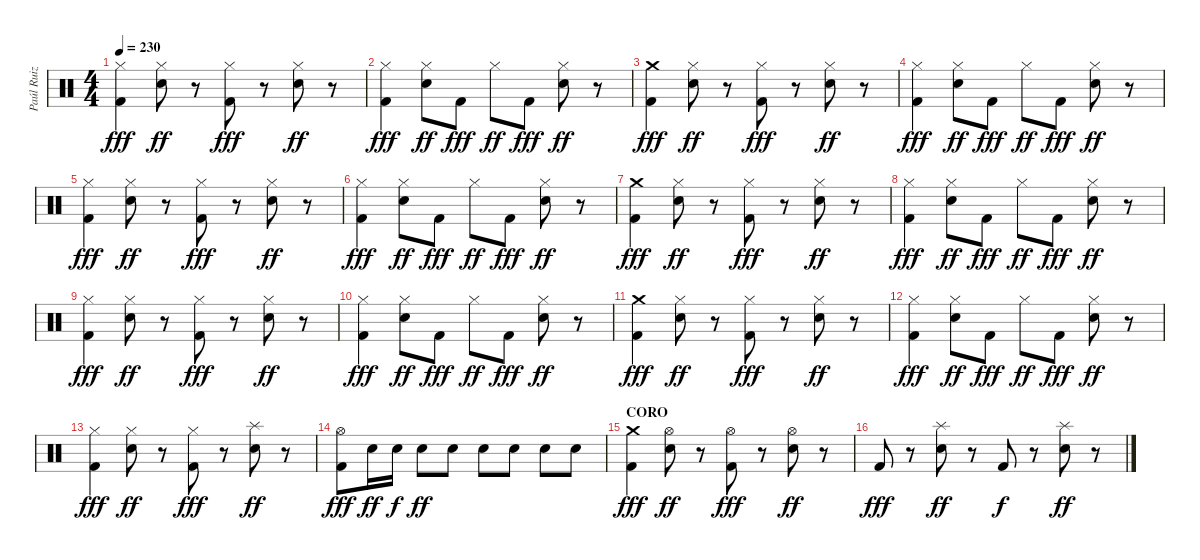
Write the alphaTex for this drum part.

\track ("Paúl Ruiz" "Paúl Ruiz") {instrument percussion}
\staff {score}
\articulation defaults
\ts (4 4)
\tempo 230
\clef neutral
\ks c
("Hi-Hat (closed)" "Kick (hit) 2").4{dy fff} ("Hi-Hat (closed)" "Snare (hit) 2").8{dy ff} r.8 ("Hi-Hat (closed)" "Kick (hit) 2").8{dy fff} r.8 ("Hi-Hat (closed)" "Snare (hit) 2").8{dy ff} r.8 |
("Hi-Hat (closed)" "Kick (hit) 2").4{dy fff} ("Hi-Hat (closed)" "Snare (hit) 2").8{dy ff} "Kick (hit) 2".8{dy fff} "Hi-Hat (closed)".8{dy ff} "Kick (hit) 2".8{dy fff} ("Hi-Hat (closed)" "Snare (hit) 2").8{dy ff} r.8 |
("Crash medium (hit)" "Kick (hit) 2").4{dy fff} ("Hi-Hat (closed)" "Snare (hit) 2").8{dy ff} r.8 ("Hi-Hat (closed)" "Kick (hit) 2").8{dy fff} r.8 ("Hi-Hat (closed)" "Snare (hit) 2").8{dy ff} r.8 |
("Hi-Hat (closed)" "Kick (hit) 2").4{dy fff} ("Hi-Hat (closed)" "Snare (hit) 2").8{dy ff} "Kick (hit) 2".8{dy fff} "Hi-Hat (closed)".8{dy ff} "Kick (hit) 2".8{dy fff} ("Hi-Hat (closed)" "Snare (hit) 2").8{dy ff} r.8 |
("Hi-Hat (closed)" "Kick (hit) 2").4{dy fff} ("Hi-Hat (closed)" "Snare (hit) 2").8{dy ff} r.8 ("Hi-Hat (closed)" "Kick (hit) 2").8{dy fff} r.8 ("Hi-Hat (closed)" "Snare (hit) 2").8{dy ff} r.8 |
("Hi-Hat (closed)" "Kick (hit) 2").4{dy fff} ("Hi-Hat (closed)" "Snare (hit) 2").8{dy ff} "Kick (hit) 2".8{dy fff} "Hi-Hat (closed)".8{dy ff} "Kick (hit) 2".8{dy fff} ("Hi-Hat (closed)" "Snare (hit) 2").8{dy ff} r.8 |
("Crash medium (hit)" "Kick (hit) 2").4{dy fff} ("Hi-Hat (closed)" "Snare (hit) 2").8{dy ff} r.8 ("Hi-Hat (closed)" "Kick (hit) 2").8{dy fff} r.8 ("Hi-Hat (closed)" "Snare (hit) 2").8{dy ff} r.8 |
("Hi-Hat (closed)" "Kick (hit) 2").4{dy fff} ("Hi-Hat (closed)" "Snare (hit) 2").8{dy ff} "Kick (hit) 2".8{dy fff} "Hi-Hat (closed)".8{dy ff} "Kick (hit) 2".8{dy fff} ("Hi-Hat (closed)" "Snare (hit) 2").8{dy ff} r.8 |
("Hi-Hat (closed)" "Kick (hit) 2").4{dy fff} ("Hi-Hat (closed)" "Snare (hit) 2").8{dy ff} r.8 ("Hi-Hat (closed)" "Kick (hit) 2").8{dy fff} r.8 ("Hi-Hat (closed)" "Snare (hit) 2").8{dy ff} r.8 |
("Hi-Hat (closed)" "Kick (hit) 2").4{dy fff} ("Hi-Hat (closed)" "Snare (hit) 2").8{dy ff} "Kick (hit) 2".8{dy fff} "Hi-Hat (closed)".8{dy ff} "Kick (hit) 2".8{dy fff} ("Hi-Hat (closed)" "Snare (hit) 2").8{dy ff} r.8 |
("Crash medium (hit)" "Kick (hit) 2").4{dy fff} ("Hi-Hat (closed)" "Snare (hit) 2").8{dy ff} r.8 ("Hi-Hat (closed)" "Kick (hit) 2").8{dy fff} r.8 ("Hi-Hat (closed)" "Snare (hit) 2").8{dy ff} r.8 |
("Hi-Hat (closed)" "Kick (hit) 2").4{dy fff} ("Hi-Hat (closed)" "Snare (hit) 2").8{dy ff} "Kick (hit) 2".8{dy fff} "Hi-Hat (closed)".8{dy ff} "Kick (hit) 2".8{dy fff} ("Hi-Hat (closed)" "Snare (hit) 2").8{dy ff} r.8 |
("Hi-Hat (closed)" "Kick (hit) 2").4{dy fff} ("Hi-Hat (closed)" "Snare (hit) 2").8{dy ff} r.8 ("Hi-Hat (closed)" "Kick (hit) 2").8{dy fff} r.8 ("Splash (hit)" "Snare (hit) 2").8{dy ff} r.8 |
("Hi-Hat (open)" "Kick (hit) 2").8{dy fff} "Snare (hit) 2".16{dy ff} "Snare (hit) 2".16{dy f} "Snare (hit) 2".8{dy ff} "Snare (hit) 2".8 "Snare (hit) 2".8 "Snare (hit) 2".8 "Snare (hit) 2".8 "Snare (hit) 2".8 |
\section ("" "CORO")
("Crash medium (hit)" "Kick (hit) 2").4{dy fff} ("Hi-Hat (open)" "Snare (hit) 2").8{dy ff} r.8 ("Hi-Hat (open)" "Kick (hit) 2").8{dy fff} r.8 ("Hi-Hat (open)" "Snare (hit) 2").8{dy ff} r.8 |
"Kick (hit) 2".8{dy fff} r.8 ("Splash (hit)" "Snare (hit) 2").8{dy ff} r.8 "Kick (hit) 2".8{dy f} r.8 ("Splash (hit)" "Snare (hit) 2").8{dy ff} r.8
